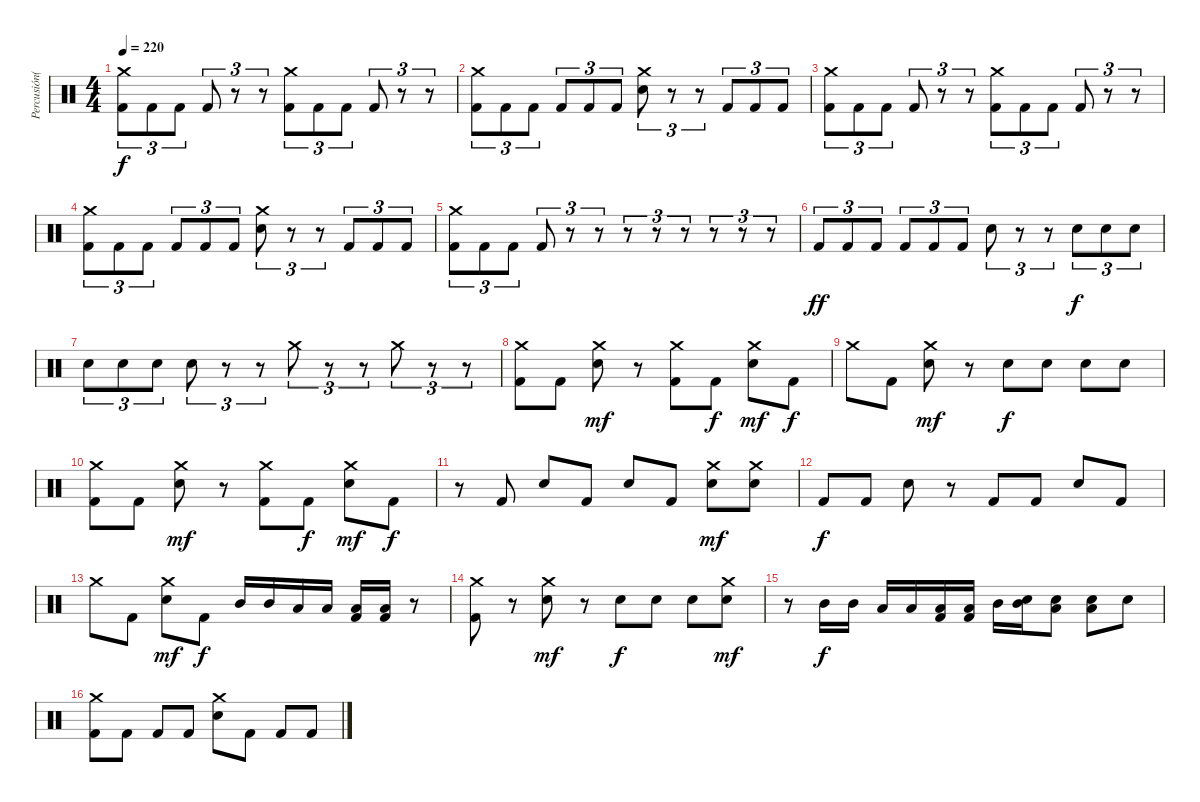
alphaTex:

\track ("Percusión(Brett Powell)" "Percusión(") {instrument percussion}
\staff {score}
\articulation defaults
\ts (4 4)
\section ("" "")
\tempo 220
\clef neutral
\ks c
("Crash medium (hit)" "Kick (hit) 2").8{tu (3 2) dy f} "Kick (hit) 2".8{tu (3 2)} "Kick (hit) 2".8{tu (3 2)} "Kick (hit) 2".8{tu (3 2)} r.8{tu (3 2)} r.8{tu (3 2)} ("Crash medium (hit)" "Kick (hit) 2").8{tu (3 2)} "Kick (hit) 2".8{tu (3 2)} "Kick (hit) 2".8{tu (3 2)} "Kick (hit) 2".8{tu (3 2)} r.8{tu (3 2)} r.8{tu (3 2)} |
("Crash medium (hit)" "Kick (hit) 2").8{tu (3 2)} "Kick (hit) 2".8{tu (3 2)} "Kick (hit) 2".8{tu (3 2)} "Kick (hit) 2".8{tu (3 2)} "Kick (hit) 2".8{tu (3 2)} "Kick (hit) 2".8{tu (3 2)} ("Crash medium (hit)" "Electric Snare (hit)").8{tu (3 2)} r.8{tu (3 2)} r.8{tu (3 2)} "Kick (hit) 2".8{tu (3 2)} "Kick (hit) 2".8{tu (3 2)} "Kick (hit) 2".8{tu (3 2)} |
("Crash medium (hit)" "Kick (hit) 2").8{tu (3 2)} "Kick (hit) 2".8{tu (3 2)} "Kick (hit) 2".8{tu (3 2)} "Kick (hit) 2".8{tu (3 2)} r.8{tu (3 2)} r.8{tu (3 2)} ("Crash medium (hit)" "Kick (hit) 2").8{tu (3 2)} "Kick (hit) 2".8{tu (3 2)} "Kick (hit) 2".8{tu (3 2)} "Kick (hit) 2".8{tu (3 2)} r.8{tu (3 2)} r.8{tu (3 2)} |
("Crash medium (hit)" "Kick (hit) 2").8{tu (3 2)} "Kick (hit) 2".8{tu (3 2)} "Kick (hit) 2".8{tu (3 2)} "Kick (hit) 2".8{tu (3 2)} "Kick (hit) 2".8{tu (3 2)} "Kick (hit) 2".8{tu (3 2)} ("Crash medium (hit)" "Electric Snare (hit)").8{tu (3 2)} r.8{tu (3 2)} r.8{tu (3 2)} "Kick (hit) 2".8{tu (3 2)} "Kick (hit) 2".8{tu (3 2)} "Kick (hit) 2".8{tu (3 2)} |
("Crash medium (hit)" "Kick (hit) 2").8{tu (3 2)} "Kick (hit) 2".8{tu (3 2)} "Kick (hit) 2".8{tu (3 2)} "Kick (hit) 2".8{tu (3 2)} r.8{tu (3 2)} r.8{tu (3 2)} r.8{tu (3 2)} r.8{tu (3 2)} r.8{tu (3 2)} r.8{tu (3 2)} r.8{tu (3 2)} r.8{tu (3 2)} |
"Kick (hit) 2".8{tu (3 2) dy ff} "Kick (hit) 2".8{tu (3 2)} "Kick (hit) 2".8{tu (3 2)} "Kick (hit) 2".8{tu (3 2)} "Kick (hit) 2".8{tu (3 2)} "Kick (hit) 2".8{tu (3 2)} "Electric Snare (hit)".8{tu (3 2)} r.8{tu (3 2)} r.8{tu (3 2)} "Electric Snare (hit)".8{tu (3 2) dy f} "Electric Snare (hit)".8{tu (3 2)} "Electric Snare (hit)".8{tu (3 2)} |
"Electric Snare (hit)".8{tu (3 2)} "Electric Snare (hit)".8{tu (3 2)} "Electric Snare (hit)".8{tu (3 2)} "Electric Snare (hit)".8{tu (3 2)} r.8{tu (3 2)} r.8{tu (3 2)} "Crash medium (hit)".8{tu (3 2)} r.8{tu (3 2)} r.8{tu (3 2)} "Crash medium (hit)".8{tu (3 2)} r.8{tu (3 2)} r.8{tu (3 2)} |
("Crash medium (hit)" "Kick (hit) 2").8 "Kick (hit) 2".8 ("Crash medium (hit)" "Electric Snare (hit)").8{dy mf} r.8 ("Crash medium (hit)" "Kick (hit) 2").8 "Kick (hit) 2".8{dy f} ("Crash medium (hit)" "Electric Snare (hit)").8{dy mf} "Kick (hit) 2".8{dy f} |
"Crash medium (hit)".8 "Kick (hit) 2".8 ("Crash medium (hit)" "Electric Snare (hit)").8{dy mf} r.8 "Electric Snare (hit)".8{dy f} "Electric Snare (hit)".8 "Electric Snare (hit)".8 "Electric Snare (hit)".8 |
("Crash medium (hit)" "Kick (hit) 2").8 "Kick (hit) 2".8 ("Crash medium (hit)" "Electric Snare (hit)").8{dy mf} r.8 ("Crash medium (hit)" "Kick (hit) 2").8 "Kick (hit) 2".8{dy f} ("Crash medium (hit)" "Electric Snare (hit)").8{dy mf} "Kick (hit) 2".8{dy f} |
r.8 "Kick (hit) 2".8 "Electric Snare (hit)".8 "Kick (hit) 2".8 "Electric Snare (hit)".8 "Kick (hit) 2".8 ("Crash medium (hit)" "Electric Snare (hit)").8{dy mf} ("Crash medium (hit)" "Electric Snare (hit)").8 |
"Kick (hit) 2".8{dy f} "Kick (hit) 2".8 "Electric Snare (hit)".8 r.8 "Kick (hit) 2".8 "Kick (hit) 2".8 "Electric Snare (hit)".8 "Kick (hit) 2".8 |
"Crash medium (hit)".8 "Kick (hit) 2".8 ("Crash medium (hit)" "Electric Snare (hit)").8{dy mf} "Kick (hit) 2".8{dy f} "Mid Tom (hit)".16 "Mid Tom (hit)".16 "Low Tom (hit)".16 "Low Tom (hit)".16 ("Low Tom (hit)" "Kick (hit) 2").16 ("Low Tom (hit)" "Kick (hit) 2").16 r.8 |
("Crash medium (hit)" "Kick (hit) 2").8 r.8 ("Crash medium (hit)" "Electric Snare (hit)").8{dy mf} r.8 "Electric Snare (hit)".8{dy f} "Electric Snare (hit)".8 "Electric Snare (hit)".8 ("Crash medium (hit)" "Electric Snare (hit)").8{dy mf} |
r.8 "Mid Tom (hit)".16{dy f} "Mid Tom (hit)".16 "Low Tom (hit)".16 "Low Tom (hit)".16 ("Low Tom (hit)" "Kick (hit) 2").16 ("Low Tom (hit)" "Kick (hit) 2").16 "Mid Tom (hit)".16 ("Mid Tom (hit)" "Electric Snare (hit)").16 ("Low Tom (hit)" "Electric Snare (hit)").8 ("Low Tom (hit)" "Electric Snare (hit)").8 "Electric Snare (hit)".8 |
("Crash medium (hit)" "Kick (hit) 2").8 "Kick (hit) 2".8 "Kick (hit) 2".8 "Kick (hit) 2".8 ("Crash medium (hit)" "Electric Snare (hit)").8 "Kick (hit) 2".8 "Kick (hit) 2".8 "Kick (hit) 2".8
